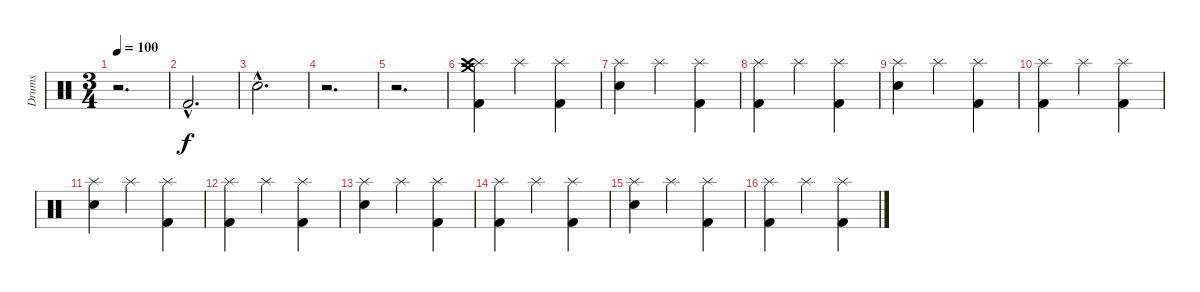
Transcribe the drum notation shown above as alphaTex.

\track ("Drums" "Drums") {instrument percussion}
\staff {score}
\articulation defaults
\ts (3 4)
\tempo 100
\clef neutral
\ks c
r.2{d dy f} |
"Kick (hit) 2"{hac}.2{d} |
"Electric Snare (hit)"{hac}.2{d} |
r.2{d} |
r.2{d} |
("Splash (hit)" "Crash high (hit)" "Crash medium (hit)" "Kick (hit) 2").4 "Splash (hit)".4 ("Splash (hit)" "Kick (hit) 2").4 |
("Splash (hit)" "Electric Snare (hit)").4 "Splash (hit)".4 ("Splash (hit)" "Kick (hit) 2").4 |
("Splash (hit)" "Kick (hit) 2").4 "Splash (hit)".4 ("Splash (hit)" "Kick (hit) 2").4 |
("Splash (hit)" "Electric Snare (hit)").4 "Splash (hit)".4 ("Splash (hit)" "Kick (hit) 2").4 |
("Splash (hit)" "Kick (hit) 2").4 "Splash (hit)".4 ("Splash (hit)" "Kick (hit) 2").4 |
("Splash (hit)" "Electric Snare (hit)").4 "Splash (hit)".4 ("Splash (hit)" "Kick (hit) 2").4 |
("Splash (hit)" "Kick (hit) 2").4 "Splash (hit)".4 ("Splash (hit)" "Kick (hit) 2").4 |
("Splash (hit)" "Electric Snare (hit)").4 "Splash (hit)".4 ("Splash (hit)" "Kick (hit) 2").4 |
("Splash (hit)" "Kick (hit) 2").4 "Splash (hit)".4 ("Splash (hit)" "Kick (hit) 2").4 |
("Splash (hit)" "Electric Snare (hit)").4 "Splash (hit)".4 ("Splash (hit)" "Kick (hit) 2").4 |
("Splash (hit)" "Kick (hit) 2").4 "Splash (hit)".4 ("Splash (hit)" "Kick (hit) 2").4
